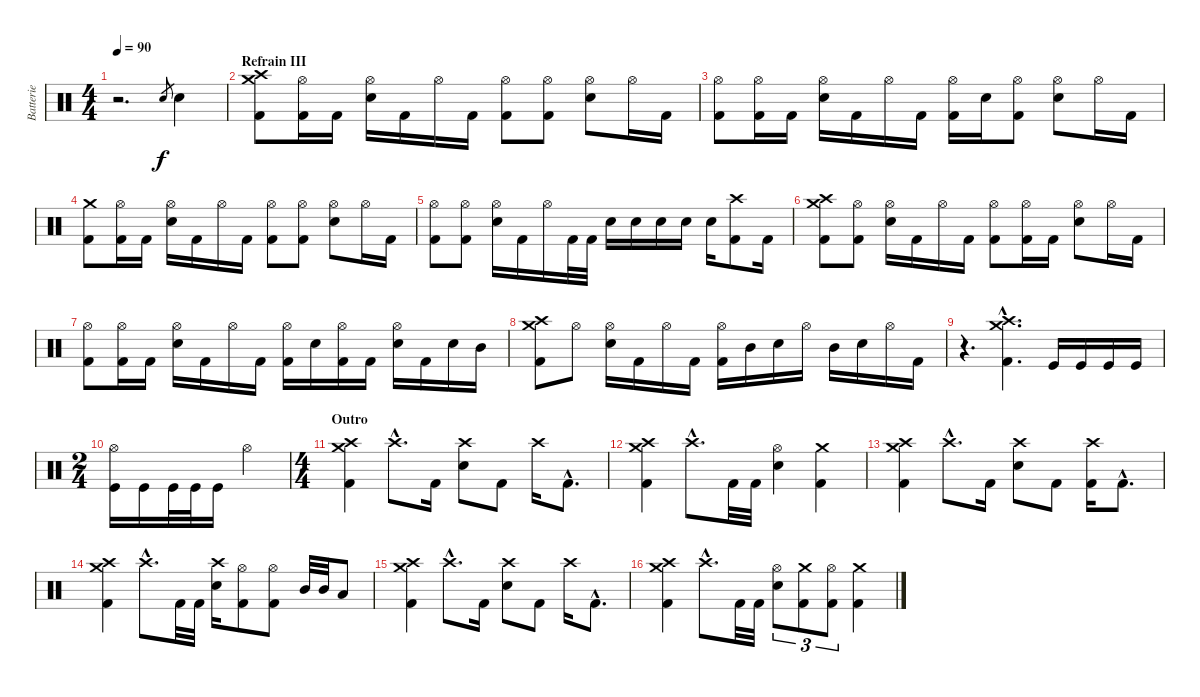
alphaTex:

\track ("Batterie" "Batterie") {instrument percussion}
\staff {score}
\articulation defaults
\ts (4 4)
\tempo 90
\clef neutral
\ks c
r.2{d dy f} "Electric Snare (hit)".8{gr} "Electric Snare (hit)".4 |
\section ("" "Refrain III")
("Crash medium (hit)" "Crash high (hit)" "Kick (hit) 2").8 ("Hi-Hat (open)" "Kick (hit) 2").16 "Kick (hit) 2".16 ("Hi-Hat (open)" "Electric Snare (hit)").16 "Kick (hit) 2".16 "Hi-Hat (open)".16 "Kick (hit) 2".16 ("Hi-Hat (open)" "Kick (hit) 2").8 ("Hi-Hat (open)" "Kick (hit) 2").8 ("Hi-Hat (open)" "Electric Snare (hit)").8 "Hi-Hat (open)".16 "Kick (hit) 2".16 |
("Hi-Hat (open)" "Kick (hit) 2").8 ("Hi-Hat (open)" "Kick (hit) 2").16 "Kick (hit) 2".16 ("Hi-Hat (open)" "Electric Snare (hit)").16 "Kick (hit) 2".16 "Hi-Hat (open)".16 "Kick (hit) 2".16 ("Hi-Hat (open)" "Kick (hit) 2").16 "Electric Snare (hit)".16 ("Hi-Hat (open)" "Kick (hit) 2").8 ("Hi-Hat (open)" "Electric Snare (hit)").8 "Hi-Hat (open)".16 "Kick (hit) 2".16 |
("Crash medium (hit)" "Kick (hit) 2").8 ("Hi-Hat (open)" "Kick (hit) 2").16 "Kick (hit) 2".16 ("Hi-Hat (open)" "Electric Snare (hit)").16 "Kick (hit) 2".16 "Hi-Hat (open)".16 "Kick (hit) 2".16 ("Hi-Hat (open)" "Kick (hit) 2").8 ("Hi-Hat (open)" "Kick (hit) 2").8 ("Hi-Hat (open)" "Electric Snare (hit)").8 "Hi-Hat (open)".16 "Kick (hit) 2".16 |
("Hi-Hat (open)" "Kick (hit) 2").8 ("Hi-Hat (open)" "Kick (hit) 2").8 ("Hi-Hat (open)" "Electric Snare (hit)").16 "Kick (hit) 2".16 "Hi-Hat (open)".16 "Kick (hit) 2".32 "Kick (hit) 2".32 "Electric Snare (hit)".16 "Electric Snare (hit)".16 "Electric Snare (hit)".16 "Electric Snare (hit)".16 "Electric Snare (hit)".16 ("Crash high (hit)" "Kick (hit) 2").8 "Kick (hit) 2".16 |
("Crash medium (hit)" "Crash high (hit)" "Kick (hit) 2").8 ("Hi-Hat (open)" "Kick (hit) 2").8 ("Hi-Hat (open)" "Electric Snare (hit)").16 "Kick (hit) 2".16 "Hi-Hat (open)".16 "Kick (hit) 2".16 ("Hi-Hat (open)" "Kick (hit) 2").8 ("Hi-Hat (open)" "Kick (hit) 2").16 "Kick (hit) 2".16 ("Hi-Hat (open)" "Electric Snare (hit)").8 "Hi-Hat (open)".16 "Kick (hit) 2".16 |
("Hi-Hat (open)" "Kick (hit) 2").8 ("Hi-Hat (open)" "Kick (hit) 2").16 "Kick (hit) 2".16 ("Hi-Hat (open)" "Electric Snare (hit)").16 "Kick (hit) 2".16 "Hi-Hat (open)".16 "Kick (hit) 2".16 ("Hi-Hat (open)" "Kick (hit) 2").16 "Electric Snare (hit)".16 ("Hi-Hat (open)" "Kick (hit) 2").16 "Kick (hit) 2".16 ("Hi-Hat (open)" "Electric Snare (hit)").16 "Kick (hit) 2".16 "Electric Snare (hit)".16 "Mid Tom (hit)".16 |
("Crash medium (hit)" "Crash high (hit)" "Kick (hit) 2").8 "Hi-Hat (open)".8 ("Hi-Hat (open)" "Electric Snare (hit)").16 "Kick (hit) 2".16 "Hi-Hat (open)".16 "Kick (hit) 2".16 ("Hi-Hat (open)" "Kick (hit) 2").16 "Mid Tom (hit)".16 "Electric Snare (hit)".16 "Hi-Hat (open)".16 "Mid Tom (hit)".16 "Electric Snare (hit)".16 "Hi-Hat (open)".16 "Kick (hit) 2".16 |
r.4{d} ("Crash medium (hit)"{hac} "Crash high (hit)"{hac} "Kick (hit) 2"{hac}).4{d} "Kick (hit)".16 "Kick (hit)".16 "Kick (hit)".16 "Kick (hit)".16 |
\ts (2 4)
("Hi-Hat (open)" "Kick (hit)").16 "Kick (hit)".16 "Kick (hit)".32 "Kick (hit)".32 "Kick (hit)".16 "Hi-Hat (open)".4 |
\ts (4 4)
\section ("" "Outro")
("Crash medium (hit)" "Crash high (hit)" "Kick (hit) 2").4 "Crash high (hit)"{hac}.8{d} "Kick (hit) 2".16 ("Crash high (hit)" "Electric Snare (hit)").8 "Kick (hit) 2".8 "Crash high (hit)".16 "Kick (hit) 2"{hac}.8{d} |
("Crash medium (hit)" "Crash high (hit)" "Kick (hit) 2").4 "Crash high (hit)"{hac}.8{d} "Kick (hit) 2".32 "Kick (hit) 2".32 ("Hi-Hat (open)" "Electric Snare (hit)").4 ("Crash medium (hit)" "Kick (hit) 2").4 |
("Crash medium (hit)" "Crash high (hit)" "Kick (hit) 2").4 "Crash high (hit)"{hac}.8{d} "Kick (hit) 2".16 ("Crash high (hit)" "Electric Snare (hit)").8 "Kick (hit) 2".8 ("Crash high (hit)" "Kick (hit) 2").16 "Kick (hit) 2"{hac}.8{d} |
("Crash medium (hit)" "Crash high (hit)" "Kick (hit) 2").4 "Crash high (hit)"{hac}.8{d} "Kick (hit) 2".32 "Kick (hit) 2".32 ("Crash high (hit)" "Electric Snare (hit)").16 ("Hi-Hat (open)" "Kick (hit) 2").8 ("Hi-Hat (open)" "Kick (hit) 2").8 "Mid Tom (hit)".32 "Mid Tom (hit)".32 "Low Tom (hit)".8 |
("Crash medium (hit)" "Crash high (hit)" "Kick (hit) 2").4 "Crash high (hit)"{hac}.8{d} "Kick (hit) 2".16 ("Crash high (hit)" "Electric Snare (hit)").8 "Kick (hit) 2".8 "Crash high (hit)".16 "Kick (hit) 2"{hac}.8{d} |
("Crash medium (hit)" "Crash high (hit)" "Kick (hit) 2").4 "Crash high (hit)"{hac}.8{d} "Kick (hit) 2".32 "Kick (hit) 2".32 ("Hi-Hat (open)" "Electric Snare (hit)").8{tu (3 2)} ("Crash medium (hit)" "Kick (hit) 2").8{tu (3 2)} ("Hi-Hat (open)" "Kick (hit) 2").8{tu (3 2)} ("Crash medium (hit)" "Kick (hit) 2").4
